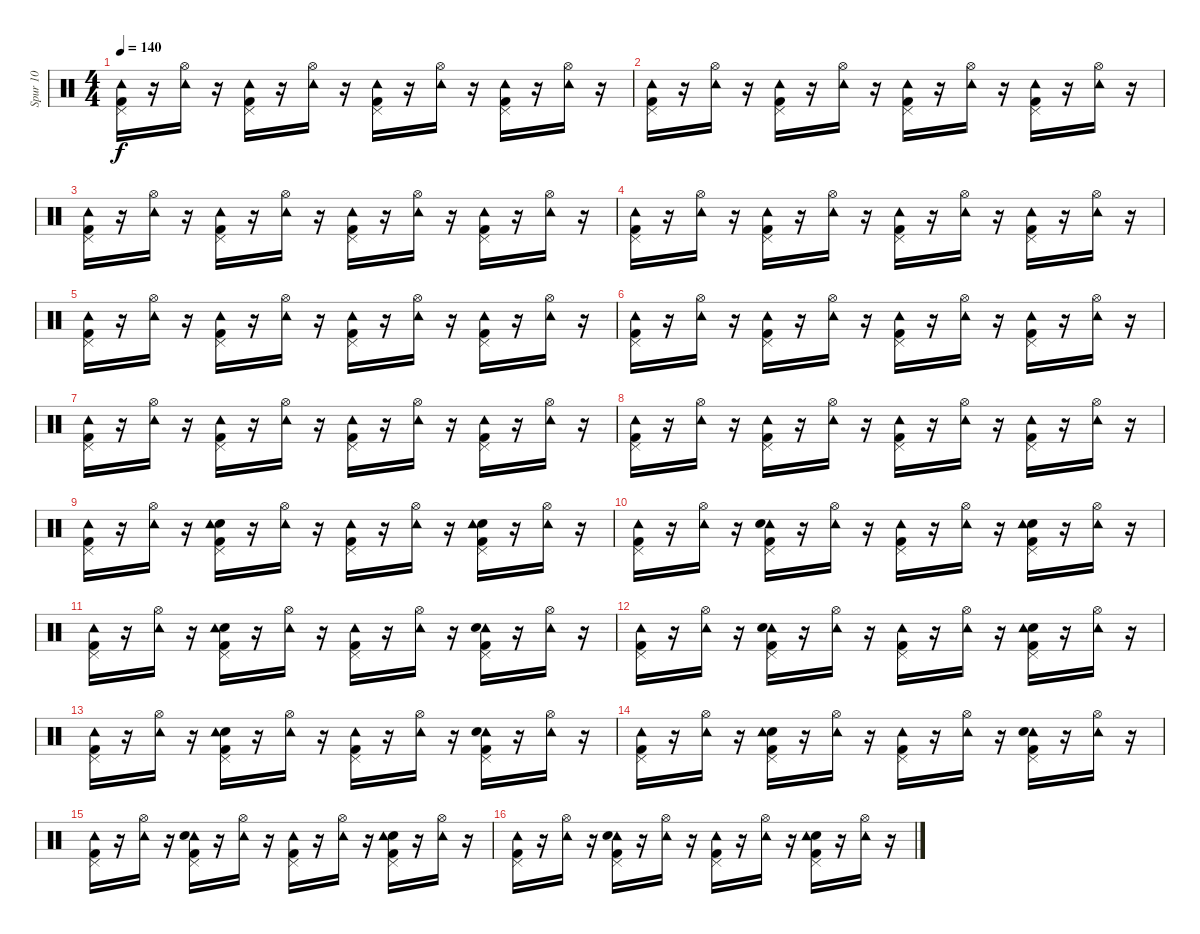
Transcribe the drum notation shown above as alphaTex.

\track ("Spur 10" "Spur 10") {instrument percussion}
\staff {score}
\articulation defaults
\ts (4 4)
\tempo 140
\clef neutral
\ks c
("Pedal Hi-Hat (hit)" "Tambourine (hit)" "Kick (hit) 2").16{dy f} r.16 ("Tambourine (hit)" "Hi-Hat (open)").16 r.16 ("Kick (hit) 2" "Pedal Hi-Hat (hit)" "Tambourine (hit)").16 r.16 ("Tambourine (hit)" "Hi-Hat (open)").16 r.16 ("Tambourine (hit)" "Kick (hit) 2" "Pedal Hi-Hat (hit)").16 r.16 ("Hi-Hat (open)" "Tambourine (hit)").16 r.16 ("Kick (hit) 2" "Tambourine (hit)" "Pedal Hi-Hat (hit)").16 r.16 ("Tambourine (hit)" "Hi-Hat (open)").16 r.16 |
("Kick (hit) 2" "Tambourine (hit)" "Pedal Hi-Hat (hit)").16 r.16 ("Hi-Hat (open)" "Tambourine (hit)").16 r.16 ("Kick (hit) 2" "Pedal Hi-Hat (hit)" "Tambourine (hit)").16 r.16 ("Hi-Hat (open)" "Tambourine (hit)").16 r.16 ("Kick (hit) 2" "Tambourine (hit)" "Pedal Hi-Hat (hit)").16 r.16 ("Tambourine (hit)" "Hi-Hat (open)").16 r.16 ("Kick (hit) 2" "Tambourine (hit)" "Pedal Hi-Hat (hit)").16 r.16 ("Hi-Hat (open)" "Tambourine (hit)").16 r.16 |
("Kick (hit) 2" "Tambourine (hit)" "Pedal Hi-Hat (hit)").16 r.16 ("Tambourine (hit)" "Hi-Hat (open)").16 r.16 ("Kick (hit) 2" "Pedal Hi-Hat (hit)" "Tambourine (hit)").16 r.16 ("Tambourine (hit)" "Hi-Hat (open)").16 r.16 ("Pedal Hi-Hat (hit)" "Kick (hit) 2" "Tambourine (hit)").16 r.16 ("Hi-Hat (open)" "Tambourine (hit)").16 r.16 ("Kick (hit) 2" "Pedal Hi-Hat (hit)" "Tambourine (hit)").16 r.16 ("Tambourine (hit)" "Hi-Hat (open)").16 r.16 |
("Pedal Hi-Hat (hit)" "Tambourine (hit)" "Kick (hit) 2").16 r.16 ("Hi-Hat (open)" "Tambourine (hit)").16 r.16 ("Kick (hit) 2" "Tambourine (hit)" "Pedal Hi-Hat (hit)").16 r.16 ("Hi-Hat (open)" "Tambourine (hit)").16 r.16 ("Tambourine (hit)" "Kick (hit) 2" "Pedal Hi-Hat (hit)").16 r.16 ("Tambourine (hit)" "Hi-Hat (open)").16 r.16 ("Kick (hit) 2" "Tambourine (hit)" "Pedal Hi-Hat (hit)").16 r.16 ("Tambourine (hit)" "Hi-Hat (open)").16 r.16 |
("Pedal Hi-Hat (hit)" "Tambourine (hit)" "Kick (hit) 2").16 r.16 ("Tambourine (hit)" "Hi-Hat (open)").16 r.16 ("Kick (hit) 2" "Pedal Hi-Hat (hit)" "Tambourine (hit)").16 r.16 ("Tambourine (hit)" "Hi-Hat (open)").16 r.16 ("Tambourine (hit)" "Kick (hit) 2" "Pedal Hi-Hat (hit)").16 r.16 ("Hi-Hat (open)" "Tambourine (hit)").16 r.16 ("Kick (hit) 2" "Tambourine (hit)" "Pedal Hi-Hat (hit)").16 r.16 ("Tambourine (hit)" "Hi-Hat (open)").16 r.16 |
("Kick (hit) 2" "Tambourine (hit)" "Pedal Hi-Hat (hit)").16 r.16 ("Hi-Hat (open)" "Tambourine (hit)").16 r.16 ("Kick (hit) 2" "Pedal Hi-Hat (hit)" "Tambourine (hit)").16 r.16 ("Hi-Hat (open)" "Tambourine (hit)").16 r.16 ("Kick (hit) 2" "Tambourine (hit)" "Pedal Hi-Hat (hit)").16 r.16 ("Tambourine (hit)" "Hi-Hat (open)").16 r.16 ("Kick (hit) 2" "Tambourine (hit)" "Pedal Hi-Hat (hit)").16 r.16 ("Hi-Hat (open)" "Tambourine (hit)").16 r.16 |
("Kick (hit) 2" "Tambourine (hit)" "Pedal Hi-Hat (hit)").16 r.16 ("Tambourine (hit)" "Hi-Hat (open)").16 r.16 ("Kick (hit) 2" "Pedal Hi-Hat (hit)" "Tambourine (hit)").16 r.16 ("Tambourine (hit)" "Hi-Hat (open)").16 r.16 ("Pedal Hi-Hat (hit)" "Kick (hit) 2" "Tambourine (hit)").16 r.16 ("Hi-Hat (open)" "Tambourine (hit)").16 r.16 ("Kick (hit) 2" "Pedal Hi-Hat (hit)" "Tambourine (hit)").16 r.16 ("Tambourine (hit)" "Hi-Hat (open)").16 r.16 |
("Pedal Hi-Hat (hit)" "Tambourine (hit)" "Kick (hit) 2").16 r.16 ("Hi-Hat (open)" "Tambourine (hit)").16 r.16 ("Kick (hit) 2" "Tambourine (hit)" "Pedal Hi-Hat (hit)").16 r.16 ("Hi-Hat (open)" "Tambourine (hit)").16 r.16 ("Tambourine (hit)" "Kick (hit) 2" "Pedal Hi-Hat (hit)").16 r.16 ("Tambourine (hit)" "Hi-Hat (open)").16 r.16 ("Kick (hit) 2" "Tambourine (hit)" "Pedal Hi-Hat (hit)").16 r.16 ("Tambourine (hit)" "Hi-Hat (open)").16 r.16 |
("Pedal Hi-Hat (hit)" "Tambourine (hit)" "Kick (hit) 2").16 r.16 ("Tambourine (hit)" "Hi-Hat (open)").16 r.16 ("Snare (hit) 2" "Kick (hit) 2" "Pedal Hi-Hat (hit)" "Tambourine (hit)").16 r.16 ("Tambourine (hit)" "Hi-Hat (open)").16 r.16 ("Tambourine (hit)" "Kick (hit) 2" "Pedal Hi-Hat (hit)").16 r.16 ("Hi-Hat (open)" "Tambourine (hit)").16 r.16 ("Snare (hit) 2" "Kick (hit) 2" "Tambourine (hit)" "Pedal Hi-Hat (hit)").16 r.16 ("Tambourine (hit)" "Hi-Hat (open)").16 r.16 |
("Pedal Hi-Hat (hit)" "Tambourine (hit)" "Kick (hit) 2").16 r.16 ("Tambourine (hit)" "Hi-Hat (open)").16 r.16 ("Kick (hit) 2" "Tambourine (hit)" "Snare (hit) 2" "Pedal Hi-Hat (hit)").16 r.16 ("Hi-Hat (open)" "Tambourine (hit)").16 r.16 ("Pedal Hi-Hat (hit)" "Tambourine (hit)" "Kick (hit) 2").16 r.16 ("Hi-Hat (open)" "Tambourine (hit)").16 r.16 ("Kick (hit) 2" "Snare (hit) 2" "Pedal Hi-Hat (hit)" "Tambourine (hit)").16 r.16 ("Hi-Hat (open)" "Tambourine (hit)").16 r.16 |
("Pedal Hi-Hat (hit)" "Kick (hit) 2" "Tambourine (hit)").16 r.16 ("Hi-Hat (open)" "Tambourine (hit)").16 r.16 ("Pedal Hi-Hat (hit)" "Kick (hit) 2" "Snare (hit) 2" "Tambourine (hit)").16 r.16 ("Tambourine (hit)" "Hi-Hat (open)").16 r.16 ("Tambourine (hit)" "Pedal Hi-Hat (hit)" "Kick (hit) 2").16 r.16 ("Hi-Hat (open)" "Tambourine (hit)").16 r.16 ("Kick (hit) 2" "Tambourine (hit)" "Snare (hit) 2" "Pedal Hi-Hat (hit)").16 r.16 ("Tambourine (hit)" "Hi-Hat (open)").16 r.16 |
("Pedal Hi-Hat (hit)" "Tambourine (hit)" "Kick (hit) 2").16 r.16 ("Tambourine (hit)" "Hi-Hat (open)").16 r.16 ("Kick (hit) 2" "Tambourine (hit)" "Snare (hit) 2" "Pedal Hi-Hat (hit)").16 r.16 ("Hi-Hat (open)" "Tambourine (hit)").16 r.16 ("Pedal Hi-Hat (hit)" "Tambourine (hit)" "Kick (hit) 2").16 r.16 ("Hi-Hat (open)" "Tambourine (hit)").16 r.16 ("Kick (hit) 2" "Snare (hit) 2" "Pedal Hi-Hat (hit)" "Tambourine (hit)").16 r.16 ("Hi-Hat (open)" "Tambourine (hit)").16 r.16 |
("Pedal Hi-Hat (hit)" "Kick (hit) 2" "Tambourine (hit)").16 r.16 ("Hi-Hat (open)" "Tambourine (hit)").16 r.16 ("Pedal Hi-Hat (hit)" "Kick (hit) 2" "Snare (hit) 2" "Tambourine (hit)").16 r.16 ("Tambourine (hit)" "Hi-Hat (open)").16 r.16 ("Tambourine (hit)" "Pedal Hi-Hat (hit)" "Kick (hit) 2").16 r.16 ("Hi-Hat (open)" "Tambourine (hit)").16 r.16 ("Kick (hit) 2" "Tambourine (hit)" "Snare (hit) 2" "Pedal Hi-Hat (hit)").16 r.16 ("Tambourine (hit)" "Hi-Hat (open)").16 r.16 |
("Tambourine (hit)" "Kick (hit) 2" "Pedal Hi-Hat (hit)").16 r.16 ("Tambourine (hit)" "Hi-Hat (open)").16 r.16 ("Snare (hit) 2" "Kick (hit) 2" "Tambourine (hit)" "Pedal Hi-Hat (hit)").16 r.16 ("Tambourine (hit)" "Hi-Hat (open)").16 r.16 ("Tambourine (hit)" "Kick (hit) 2" "Pedal Hi-Hat (hit)").16 r.16 ("Tambourine (hit)" "Hi-Hat (open)").16 r.16 ("Pedal Hi-Hat (hit)" "Kick (hit) 2" "Tambourine (hit)" "Snare (hit) 2").16 r.16 ("Tambourine (hit)" "Hi-Hat (open)").16 r.16 |
("Tambourine (hit)" "Pedal Hi-Hat (hit)" "Kick (hit) 2").16 r.16 ("Tambourine (hit)" "Hi-Hat (open)").16 r.16 ("Kick (hit) 2" "Tambourine (hit)" "Snare (hit) 2" "Pedal Hi-Hat (hit)").16 r.16 ("Hi-Hat (open)" "Tambourine (hit)").16 r.16 ("Pedal Hi-Hat (hit)" "Tambourine (hit)" "Kick (hit) 2").16 r.16 ("Hi-Hat (open)" "Tambourine (hit)").16 r.16 ("Snare (hit) 2" "Tambourine (hit)" "Kick (hit) 2" "Pedal Hi-Hat (hit)").16 r.16 ("Tambourine (hit)" "Hi-Hat (open)").16 r.16 |
("Tambourine (hit)" "Kick (hit) 2" "Pedal Hi-Hat (hit)").16 r.16 ("Tambourine (hit)" "Hi-Hat (open)").16 r.16 ("Tambourine (hit)" "Snare (hit) 2" "Kick (hit) 2" "Pedal Hi-Hat (hit)").16 r.16 ("Tambourine (hit)" "Hi-Hat (open)").16 r.16 ("Pedal Hi-Hat (hit)" "Kick (hit) 2" "Tambourine (hit)").16 r.16 ("Tambourine (hit)" "Hi-Hat (open)").16 r.16 ("Kick (hit) 2" "Snare (hit) 2" "Pedal Hi-Hat (hit)" "Tambourine (hit)").16 r.16 ("Tambourine (hit)" "Hi-Hat (open)").16 r.16
